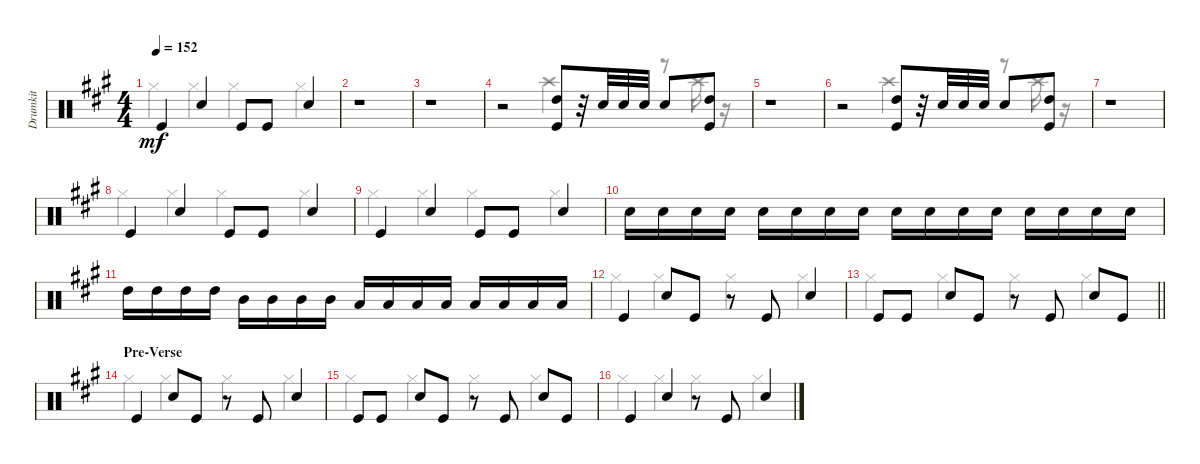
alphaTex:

\track ("Drumkit" "Drumkit") {instrument percussion}
\staff {score}
\articulation defaults
\voice
\ts (4 4)
\tempo 152
\clef neutral
\ks a "Kick (hit)".4{dy mf} "Snare (hit) 2".4 "Kick (hit)".8 "Kick (hit)".8 "Snare (hit) 2".4
|
r.1 |
r.1 |
r.2 ("Kick (hit)" "High Tom (hit)").8 r.32 "Snare (hit) 2".32 "Snare (hit) 2".32 "Snare (hit) 2".32 "Snare (hit) 2".8 ("Kick (hit)" "High Tom (hit)").8 |
r.1 |
r.2 ("Kick (hit)" "High Tom (hit)").8 r.32 "Snare (hit) 2".32 "Snare (hit) 2".32 "Snare (hit) 2".32 "Snare (hit) 2".8 ("Kick (hit)" "High Tom (hit)").8 |
r.1 |
"Kick (hit)".4 "Snare (hit) 2".4 "Kick (hit)".8 "Kick (hit)".8 "Snare (hit) 2".4 |
"Kick (hit)".4 "Snare (hit) 2".4 "Kick (hit)".8 "Kick (hit)".8 "Snare (hit) 2".4 |
"Snare (hit) 2".16 "Snare (hit) 2".16 "Snare (hit) 2".16 "Snare (hit) 2".16 "Snare (hit) 2".16 "Snare (hit) 2".16 "Snare (hit) 2".16 "Snare (hit) 2".16 "Snare (hit) 2".16 "Snare (hit) 2".16 "Snare (hit) 2".16 "Snare (hit) 2".16 "Snare (hit) 2".16 "Snare (hit) 2".16 "Snare (hit) 2".16 "Snare (hit) 2".16 |
"High Tom (hit)".16 "High Tom (hit)".16 "High Tom (hit)".16 "High Tom (hit)".16 "Mid Tom (hit)".16 "Mid Tom (hit)".16 "Mid Tom (hit)".16 "Mid Tom (hit)".16 "Low Tom (hit)".16 "Low Tom (hit)".16 "Low Tom (hit)".16 "Low Tom (hit)".16 "Low Floor Tom (hit)".16 "Low Floor Tom (hit)".16 "Low Floor Tom (hit)".16 "Low Floor Tom (hit)".16 |
"Kick (hit)".4 "Snare (hit) 2".8 "Kick (hit)".8 r.8 "Kick (hit)".8 "Snare (hit) 2".4 |
\barLineRight lightlight "Kick (hit)".8 "Kick (hit)".8 "Snare (hit) 2".8 "Kick (hit)".8
r.8 "Kick (hit)".8 "Snare (hit) 2".8 "Kick (hit)".8 |
\section ("" "Pre-Verse")
"Kick (hit)".4 "Snare (hit) 2".8 "Kick (hit)".8 r.8 "Kick (hit)".8 "Snare (hit) 2".4 |
"Kick (hit)".8 "Kick (hit)".8 "Snare (hit) 2".8 "Kick (hit)".8 r.8 "Kick (hit)".8 "Snare (hit) 2".8 "Kick (hit)".8 |
"Kick (hit)".4 "Snare (hit) 2".4 r.8 "Kick (hit)".8 "Snare (hit) 2".4
\voice
\clef neutral
\ottava regular
\simile none
\ks a "Hi-Hat (closed)".4{dy mf} "Hi-Hat (closed)".4 "Hi-Hat (closed)".4 "Hi-Hat (closed)".4
|
|
|
r.2 "Crash high (hit)".4 r.8 "Crash high (hit)".16 r.16 |
|
r.2 "Crash high (hit)".4 r.8 "Crash high (hit)".16 r.16 |
|
"Hi-Hat (closed)".4 "Hi-Hat (closed)".4 "Hi-Hat (closed)".4 "Hi-Hat (closed)".4 |
"Hi-Hat (closed)".4 "Hi-Hat (closed)".4 "Hi-Hat (closed)".4 "Hi-Hat (closed)".4 |
|
|
"Hi-Hat (closed)".4 "Hi-Hat (closed)".4 "Hi-Hat (closed)".4 "Hi-Hat (closed)".4 |
\barLineRight lightlight "Hi-Hat (closed)".4 "Hi-Hat (closed)".4 "Hi-Hat (closed)".4 "Hi-Hat (closed)".4
|
"Hi-Hat (closed)".4 "Hi-Hat (closed)".4 "Hi-Hat (closed)".4 "Hi-Hat (closed)".4 |
"Hi-Hat (closed)".4 "Hi-Hat (closed)".4 "Hi-Hat (closed)".4 "Hi-Hat (closed)".4 |
"Hi-Hat (closed)".4 "Hi-Hat (closed)".4 "Hi-Hat (closed)".4 "Hi-Hat (closed)".4
